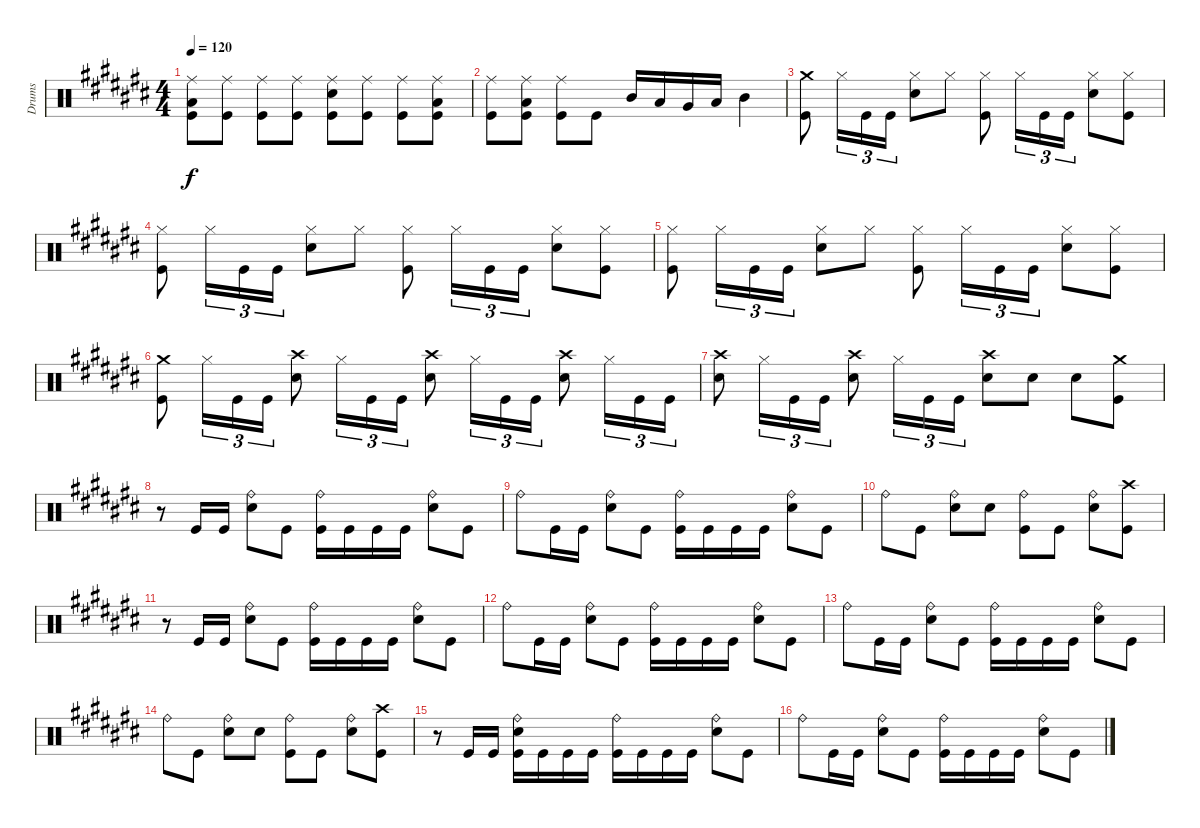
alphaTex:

\track ("Drums" "Drums") {instrument percussion}
\staff {score}
\articulation defaults
\ts (4 4)
\tempo 120
\clef neutral
\ks c#
("Ride (middle)" "Low Tom (hit)" "Kick (hit)").8{dy f} ("Ride (middle)" "Kick (hit)").8 ("Ride (middle)" "Kick (hit)").8 ("Ride (middle)" "Kick (hit)").8 ("Ride (middle)" "Snare (hit) 2" "Kick (hit)").8 ("Ride (middle)" "Kick (hit)").8 ("Ride (middle)" "Kick (hit)").8 ("Ride (middle)" "Low Tom (hit)" "Kick (hit)").8 |
("Ride (middle)" "Kick (hit)").8 ("Ride (middle)" "Low Tom (hit)" "Kick (hit)").8 ("Ride (middle)" "Kick (hit)").8 "Kick (hit)".8 "Mid Tom (hit)".16 "Low Tom (hit)".16 "Very Low Tom (hit)".16 "Low Floor Tom (hit)".16 "Mid Tom (hit)".4 |
("Crash medium (hit)" "Kick (hit)").8 "Hi-Hat (closed)".16{tu (3 2)} "Kick (hit)".16{tu (3 2)} "Kick (hit)".16{tu (3 2)} ("Hi-Hat (closed)" "Snare (hit) 2").8 "Hi-Hat (closed)".8 ("Hi-Hat (closed)" "Kick (hit)").8 "Hi-Hat (closed)".16{tu (3 2)} "Kick (hit)".16{tu (3 2)} "Kick (hit)".16{tu (3 2)} ("Hi-Hat (closed)" "Snare (hit) 2").8 ("Hi-Hat (closed)" "Kick (hit)").8 |
("Hi-Hat (closed)" "Kick (hit)").8 "Hi-Hat (closed)".16{tu (3 2)} "Kick (hit)".16{tu (3 2)} "Kick (hit)".16{tu (3 2)} ("Hi-Hat (closed)" "Snare (hit) 2").8 "Hi-Hat (closed)".8 ("Hi-Hat (closed)" "Kick (hit)").8 "Hi-Hat (closed)".16{tu (3 2)} "Kick (hit)".16{tu (3 2)} "Kick (hit)".16{tu (3 2)} ("Hi-Hat (closed)" "Snare (hit) 2").8 ("Hi-Hat (closed)" "Kick (hit)").8 |
("Hi-Hat (closed)" "Kick (hit)").8 "Hi-Hat (closed)".16{tu (3 2)} "Kick (hit)".16{tu (3 2)} "Kick (hit)".16{tu (3 2)} ("Hi-Hat (closed)" "Snare (hit) 2").8 "Hi-Hat (closed)".8 ("Hi-Hat (closed)" "Kick (hit)").8 "Hi-Hat (closed)".16{tu (3 2)} "Kick (hit)".16{tu (3 2)} "Kick (hit)".16{tu (3 2)} ("Hi-Hat (closed)" "Snare (hit) 2").8 ("Hi-Hat (closed)" "Kick (hit)").8 |
("Crash medium (hit)" "Kick (hit)").8 "Hi-Hat (closed)".16{tu (3 2)} "Kick (hit)".16{tu (3 2)} "Kick (hit)".16{tu (3 2)} ("Crash high (hit)" "Snare (hit) 2").8 "Hi-Hat (closed)".16{tu (3 2)} "Kick (hit)".16{tu (3 2)} "Kick (hit)".16{tu (3 2)} ("Crash high (hit)" "Snare (hit) 2").8 "Hi-Hat (closed)".16{tu (3 2)} "Kick (hit)".16{tu (3 2)} "Kick (hit)".16{tu (3 2)} ("Crash high (hit)" "Snare (hit) 2").8 "Hi-Hat (closed)".16{tu (3 2)} "Kick (hit)".16{tu (3 2)} "Kick (hit)".16{tu (3 2)} |
("Crash high (hit)" "Snare (hit) 2").8 "Hi-Hat (closed)".16{tu (3 2)} "Kick (hit)".16{tu (3 2)} "Kick (hit)".16{tu (3 2)} ("Crash high (hit)" "Snare (hit) 2").8 "Hi-Hat (closed)".16{tu (3 2)} "Kick (hit)".16{tu (3 2)} "Kick (hit)".16{tu (3 2)} ("Crash high (hit)" "Snare (hit) 2").8 "Snare (hit) 2".8 "Snare (hit) 2".8 ("Crash medium (hit)" "Kick (hit)").8 |
r.8 "Kick (hit)".16 "Kick (hit)".16 ("Ride (bell)" "Snare (hit) 2").8 "Kick (hit)".8 ("Ride (bell)" "Kick (hit)").16 "Kick (hit)".16 "Kick (hit)".16 "Kick (hit)".16 ("Ride (bell)" "Snare (hit) 2").8 "Kick (hit)".8 |
"Ride (bell)".8 "Kick (hit)".16 "Kick (hit)".16 ("Ride (bell)" "Snare (hit) 2").8 "Kick (hit)".8 ("Ride (bell)" "Kick (hit)").16 "Kick (hit)".16 "Kick (hit)".16 "Kick (hit)".16 ("Ride (bell)" "Snare (hit) 2").8 "Kick (hit)".8 |
"Ride (bell)".8 "Kick (hit)".8 ("Ride (bell)" "Snare (hit) 2").8 "Snare (hit) 2".8 ("Ride (bell)" "Kick (hit)").8 "Kick (hit)".8 ("Ride (bell)" "Snare (hit) 2").8 ("Crash high (hit)" "Kick (hit)").8 |
r.8 "Kick (hit)".16 "Kick (hit)".16 ("Ride (bell)" "Snare (hit) 2").8 "Kick (hit)".8 ("Ride (bell)" "Kick (hit)").16 "Kick (hit)".16 "Kick (hit)".16 "Kick (hit)".16 ("Ride (bell)" "Snare (hit) 2").8 "Kick (hit)".8 |
"Ride (bell)".8 "Kick (hit)".16 "Kick (hit)".16 ("Ride (bell)" "Snare (hit) 2").8 "Kick (hit)".8 ("Ride (bell)" "Kick (hit)").16 "Kick (hit)".16 "Kick (hit)".16 "Kick (hit)".16 ("Ride (bell)" "Snare (hit) 2").8 "Kick (hit)".8 |
"Ride (bell)".8 "Kick (hit)".16 "Kick (hit)".16 ("Ride (bell)" "Snare (hit) 2").8 "Kick (hit)".8 ("Ride (bell)" "Kick (hit)").16 "Kick (hit)".16 "Kick (hit)".16 "Kick (hit)".16 ("Ride (bell)" "Snare (hit) 2").8 "Kick (hit)".8 |
"Ride (bell)".8 "Kick (hit)".8 ("Ride (bell)" "Snare (hit) 2").8 "Snare (hit) 2".8 ("Ride (bell)" "Kick (hit)").8 "Kick (hit)".8 ("Ride (bell)" "Snare (hit) 2").8 ("Crash high (hit)" "Kick (hit)").8 |
r.8 "Kick (hit)".16 "Kick (hit)".16 ("Ride (bell)" "Snare (hit) 2" "Kick (hit)").16 "Kick (hit)".16 "Kick (hit)".16 "Kick (hit)".16 ("Ride (bell)" "Kick (hit)").16 "Kick (hit)".16 "Kick (hit)".16 "Kick (hit)".16 ("Ride (bell)" "Snare (hit) 2").8 "Kick (hit)".8 |
"Ride (bell)".8 "Kick (hit)".16 "Kick (hit)".16 ("Ride (bell)" "Snare (hit) 2").8 "Kick (hit)".8 ("Ride (bell)" "Kick (hit)").16 "Kick (hit)".16 "Kick (hit)".16 "Kick (hit)".16 ("Ride (bell)" "Snare (hit) 2").8 "Kick (hit)".8
